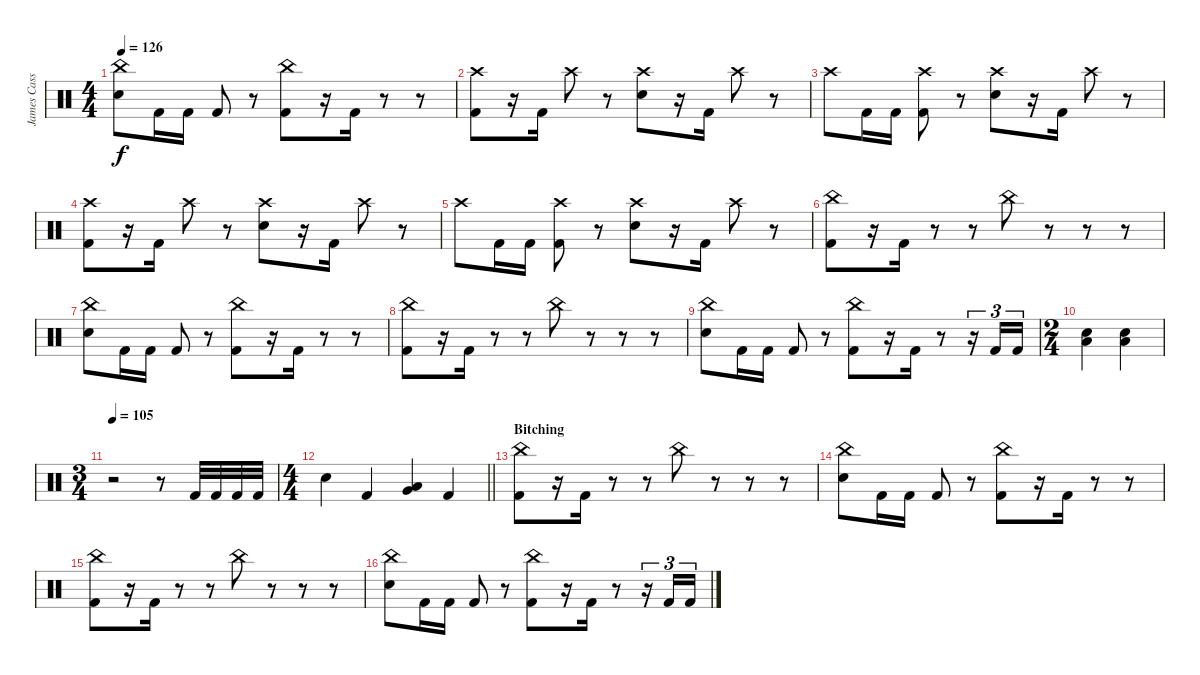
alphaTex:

\track ("James Cassells (Drums)" "James Cass") {instrument percussion}
\staff {score}
\articulation defaults
\ts (4 4)
\tempo 126
\clef neutral
\ks c
("China (hit)" "Snare (hit) 2").8{dy f} "Kick (hit) 2".16 "Kick (hit) 2".16 "Kick (hit) 2".8 r.8 ("China (hit)" "Kick (hit) 2").8 r.16 "Kick (hit) 2".16 r.8 r.8 |
("Crash high (hit)" "Kick (hit) 2").8 r.16 "Kick (hit) 2".16 "Crash high (hit)".8 r.8 ("Crash high (hit)" "Snare (hit) 2").8 r.16 "Kick (hit) 2".16 "Crash high (hit)".8 r.8 |
"Crash high (hit)".8 "Kick (hit) 2".16 "Kick (hit) 2".16 ("Crash high (hit)" "Kick (hit) 2").8 r.8 ("Crash high (hit)" "Snare (hit) 2").8 r.16 "Kick (hit) 2".16 "Crash high (hit)".8 r.8 |
("Crash high (hit)" "Kick (hit) 2").8 r.16 "Kick (hit) 2".16 "Crash high (hit)".8 r.8 ("Crash high (hit)" "Snare (hit) 2").8 r.16 "Kick (hit) 2".16 "Crash high (hit)".8 r.8 |
"Crash high (hit)".8 "Kick (hit) 2".16 "Kick (hit) 2".16 ("Crash high (hit)" "Kick (hit) 2").8 r.8 ("Crash high (hit)" "Snare (hit) 2").8 r.16 "Kick (hit) 2".16 "Crash high (hit)".8 r.8 |
("China (hit)" "Kick (hit) 2").8 r.16 "Kick (hit) 2".16 r.8 r.8 "China (hit)".8 r.8 r.8 r.8 |
("China (hit)" "Snare (hit) 2").8 "Kick (hit) 2".16 "Kick (hit) 2".16 "Kick (hit) 2".8 r.8 ("China (hit)" "Kick (hit) 2").8 r.16 "Kick (hit) 2".16 r.8 r.8 |
("China (hit)" "Kick (hit) 2").8 r.16 "Kick (hit) 2".16 r.8 r.8 "China (hit)".8 r.8 r.8 r.8 |
("China (hit)" "Snare (hit) 2").8 "Kick (hit) 2".16 "Kick (hit) 2".16 "Kick (hit) 2".8 r.8 ("China (hit)" "Kick (hit) 2").8 r.16 "Kick (hit) 2".16 r.8 r.16{tu (3 2)} "Kick (hit) 2".16{tu (3 2)} "Kick (hit) 2".16{tu (3 2)} |
\ts (2 4)
("Snare (hit) 2" "Low Floor Tom (hit)").4 ("Snare (hit) 2" "Low Floor Tom (hit)").4 |
\ts (3 4)
\tempo 105
r.2 r.8 "Kick (hit) 2".32 "Kick (hit) 2".32 "Kick (hit) 2".32 "Kick (hit) 2".32 |
\ts (4 4)
\barLineRight lightlight "Snare (hit) 2".4 "Kick (hit) 2".4
("Very Low Tom (hit)" "Low Floor Tom (hit)").4 "Kick (hit) 2".4 |
\section ("" "Bitching")
("China (hit)" "Kick (hit) 2").8 r.16 "Kick (hit) 2".16 r.8 r.8 "China (hit)".8 r.8 r.8 r.8 |
("China (hit)" "Snare (hit) 2").8 "Kick (hit) 2".16 "Kick (hit) 2".16 "Kick (hit) 2".8 r.8 ("China (hit)" "Kick (hit) 2").8 r.16 "Kick (hit) 2".16 r.8 r.8 |
("China (hit)" "Kick (hit) 2").8 r.16 "Kick (hit) 2".16 r.8 r.8 "China (hit)".8 r.8 r.8 r.8 |
("China (hit)" "Snare (hit) 2").8 "Kick (hit) 2".16 "Kick (hit) 2".16 "Kick (hit) 2".8 r.8 ("China (hit)" "Kick (hit) 2").8 r.16 "Kick (hit) 2".16 r.8 r.16{tu (3 2)} "Kick (hit) 2".16{tu (3 2)} "Kick (hit) 2".16{tu (3 2)}
